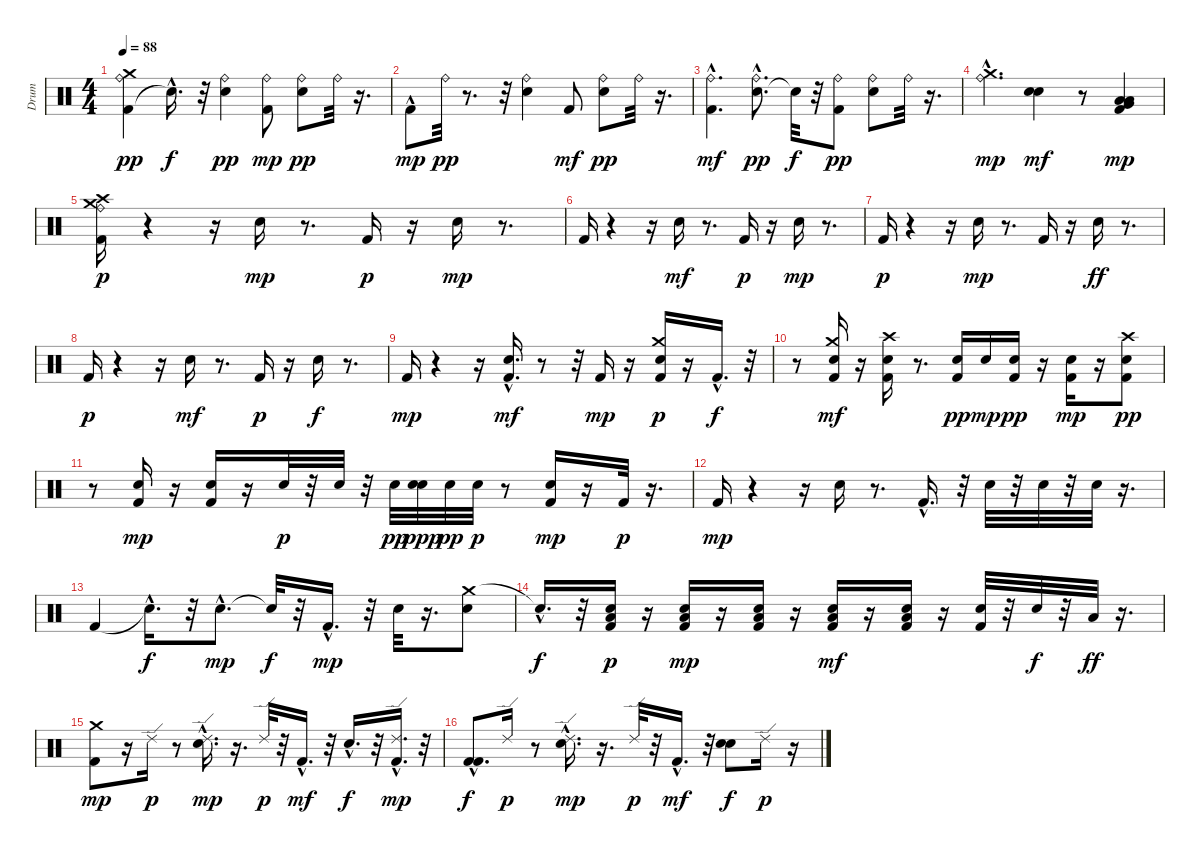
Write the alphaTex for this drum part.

\track ("Drum" "Drum") {instrument percussion}
\staff {score}
\articulation defaults
\ts (4 4)
\tempo 88
\clef neutral
\ks c
("Kick (hit) 2" "Ride (bell)" "Crash medium (hit)").4{dy pp} "Snare (hit)"{hac t}.16{d dy f} r.32 ("Electric Snare (hit)" "Ride (bell)").4{dy pp} ("Ride (bell)" "Kick (hit) 2").8{dy mp} ("Electric Snare (hit)" "Ride (bell)").8{dy pp} "Ride (bell)".32 r.16{d} |
"Kick (hit) 2"{hac}.8{dy mp} "Ride (bell)".32{dy pp} r.8{d} r.32 ("Electric Snare (hit)" "Ride (bell)").4 "Kick (hit) 2".8{dy mf} ("Electric Snare (hit)" "Ride (bell)").8{dy pp} "Ride (bell)".32 r.16{d} |
("Ride (bell)" "Kick (hit) 2"{hac}).4{d dy mf} ("Electric Snare (hit)"{hac} "Ride (bell)").8{d dy pp} "Snare (hit)"{t}.32{dy f} r.32 ("Kick (hit) 2" "Ride (bell)").8{dy pp} ("Electric Snare (hit)" "Ride (bell)").8 "Ride (bell)".32 r.16{d} |
("Crash medium (hit)"{hac} "Ride (bell)"{hac}).4{d dy mp} ("Snare (hit) 2" "Electric Snare (hit)").4{dy mf} r.8 ("Kick (hit) 2" "Low Tom (hit)" "Low Floor Tom (hit)" "Very Low Tom (hit)").4{dy mp} |
("Crash high (hit)" "Ride (bell)" "Kick (hit) 2" "Crash medium (hit)").16{dy p} r.4 r.16 "Electric Snare (hit)".16{dy mp} r.8{d} "Kick (hit) 2".16{dy p} r.16 "Electric Snare (hit)".16{dy mp} r.8{d} |
"Kick (hit) 2".16 r.4 r.16 "Electric Snare (hit)".16{dy mf} r.8{d} "Kick (hit) 2".16{dy p} r.16 "Electric Snare (hit)".16{dy mp} r.8{d} |
"Kick (hit) 2".16{dy p} r.4 r.16 "Electric Snare (hit)".16{dy mp} r.8{d} "Kick (hit) 2".16 r.16 "Electric Snare (hit)".16{dy ff} r.8{d} |
"Kick (hit) 2".16{dy p} r.4 r.16 "Electric Snare (hit)".16{dy mf} r.8{d} "Kick (hit) 2".16{dy p} r.16 "Electric Snare (hit)".16{dy f} r.8{d} |
"Kick (hit) 2".16{dy mp} r.4 r.16 ("Kick (hit) 2" "Electric Snare (hit)"{hac}).16{d dy mf} r.8 r.32 "Kick (hit) 2".16{dy mp} r.16 ("Electric Snare (hit)" "Kick (hit) 2" "Crash medium (hit)").16{dy p} r.16 "Kick (hit) 2"{hac}.16{d dy f} r.32 |
r.8 ("Electric Snare (hit)" "Crash medium (hit)" "Kick (hit) 2").16{dy mf} r.16 ("Electric Snare (hit)" "Kick (hit) 2" "Crash high (hit)").16 r.8{d} ("Kick (hit) 2" "Electric Snare (hit)").16{dy pp} "Electric Snare (hit)".16{dy mp} ("Electric Snare (hit)" "Kick (hit) 2").16{dy pp} r.16 ("Kick (hit) 2" "Electric Snare (hit)").16{dy mp} r.16 ("Kick (hit) 2" "Electric Snare (hit)" "Crash high (hit)").8{dy pp} |
r.8 ("Kick (hit) 2" "Electric Snare (hit)").16{dy mp} r.16 ("Kick (hit) 2" "Electric Snare (hit)").16 r.16 "Electric Snare (hit)".32{dy p} r.32 "Electric Snare (hit)".32 r.32 "Electric Snare (hit)".32{dy pp} ("Electric Snare (hit)" "Electric Snare (hit)").32{dy ppp} "Electric Snare (hit)".32{dy pp} "Electric Snare (hit)".32{dy p} r.8 ("Kick (hit) 2" "Electric Snare (hit)").16{dy mp} r.16 "Kick (hit) 2".32{dy p} r.16{d} |
"Kick (hit) 2".16{dy mp} r.4 r.16 "Electric Snare (hit)".16 r.8{d} "Kick (hit) 2"{hac}.16{d} r.32 "Electric Snare (hit)".32 r.32 "Electric Snare (hit)".32 r.32 "Electric Snare (hit)".32 r.16{d} |
"Kick (hit) 2".4 "Snare (hit)"{hac t}.16{d dy f} r.32 "Electric Snare (hit)"{hac}.8{d dy mp} "Snare (hit)"{t}.32{dy f} r.32 "Kick (hit) 2"{hac}.16{d dy mp} r.32 "Electric Snare (hit)".32 r.16{d} ("Crash medium (hit)" "Electric Snare (hit)").8 |
"Snare (hit)"{hac t}.16{d dy f} r.32 ("Electric Snare (hit)" "Low Tom (hit)" "Kick (hit) 2").16{dy p} r.16 ("Electric Snare (hit)" "Kick (hit) 2" "Low Tom (hit)").16{dy mp} r.16 ("Electric Snare (hit)" "Kick (hit) 2" "Low Tom (hit)").16 r.16 ("Electric Snare (hit)" "Kick (hit) 2" "Low Tom (hit)").16{dy mf} r.16 ("Electric Snare (hit)" "Kick (hit) 2" "Low Tom (hit)").16 r.16 ("Electric Snare (hit)" "Kick (hit) 2").32 r.32 "Electric Snare (hit)".32{dy f} r.32 "Low Tom (hit)".32{dy ff} r.16{d} |
("Crash medium (hit)" "Kick (hit) 2").8{dy mp} r.16 "Ride (edge) 2".16{dy p} r.8 ("Electric Snare (hit)"{hac} "Ride (edge) 2").16{d dy mp} r.16{d} "Ride (edge) 2".32{dy p} r.32 "Kick (hit) 2"{hac}.16{d dy mf} r.32 "Electric Snare (hit)"{hac}.16{d dy f} r.32 ("Ride (edge) 2" "Kick (hit) 2"{hac}).16{d dy mp} r.32 |
("Kick (hit) 2"{hac} "Kick (hit) 2").8{d dy f} "Ride (edge) 2".16{dy p} r.8 ("Electric Snare (hit)"{hac} "Ride (edge) 2").16{d dy mp} r.16{d} "Ride (edge) 2".32{dy p} r.32 "Kick (hit) 2"{hac}.16{d dy mf} r.32 ("Electric Snare (hit)" "Electric Snare (hit)").8{dy f} "Ride (edge) 2".16{dy p} r.16
